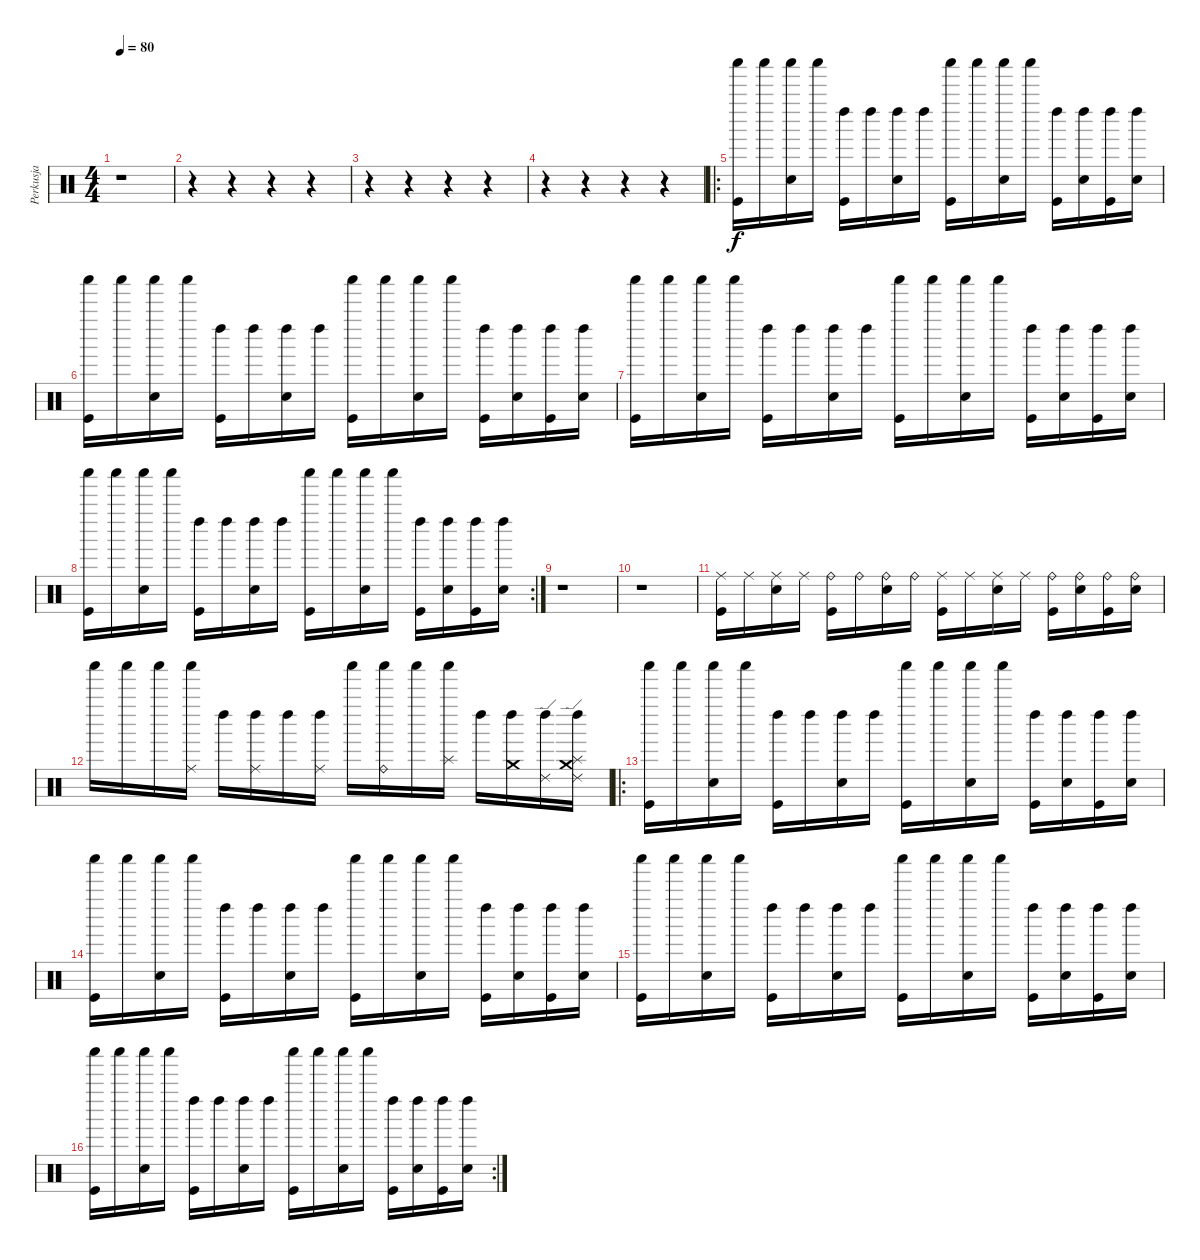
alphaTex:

\track ("Perkusja" "Perkusja") {instrument percussion}
\staff {score}
\articulation defaults
\ts (4 4)
\tempo 80
\clef neutral
\ks c
r.1{dy f} |
r.4 r.4 r.4 r.4 |
r.4 r.4 r.4 r.4 |
r.4 r.4 r.4 r.4 |
\ro
("Shaker (hit)" "Kick (hit)").16 "Shaker (hit)".16 ("Shaker (hit)" "Snare (hit) 2").16 "Shaker (hit)".16 ("Left Maraca (hit)" "Kick (hit)").16 "Left Maraca (hit)".16 ("Left Maraca (hit)" "Snare (hit) 2").16 "Left Maraca (hit)".16 ("Shaker (hit)" "Kick (hit)").16 "Shaker (hit)".16 ("Shaker (hit)" "Snare (hit) 2").16 "Shaker (hit)".16 ("Left Maraca (hit)" "Kick (hit)").16 ("Left Maraca (hit)" "Snare (hit) 2").16 ("Left Maraca (hit)" "Kick (hit)").16 ("Left Maraca (hit)" "Snare (hit) 2").16 |
("Shaker (hit)" "Kick (hit)").16 "Shaker (hit)".16 ("Shaker (hit)" "Snare (hit) 2").16 "Shaker (hit)".16 ("Left Maraca (hit)" "Kick (hit)").16 "Left Maraca (hit)".16 ("Left Maraca (hit)" "Snare (hit) 2").16 "Left Maraca (hit)".16 ("Shaker (hit)" "Kick (hit)").16 "Shaker (hit)".16 ("Shaker (hit)" "Snare (hit) 2").16 "Shaker (hit)".16 ("Left Maraca (hit)" "Kick (hit)").16 ("Left Maraca (hit)" "Snare (hit) 2").16 ("Left Maraca (hit)" "Kick (hit)").16 ("Left Maraca (hit)" "Snare (hit) 2").16 |
("Shaker (hit)" "Kick (hit)").16 "Shaker (hit)".16 ("Shaker (hit)" "Snare (hit) 2").16 "Shaker (hit)".16 ("Left Maraca (hit)" "Kick (hit)").16 "Left Maraca (hit)".16 ("Left Maraca (hit)" "Snare (hit) 2").16 "Left Maraca (hit)".16 ("Shaker (hit)" "Kick (hit)").16 "Shaker (hit)".16 ("Shaker (hit)" "Snare (hit) 2").16 "Shaker (hit)".16 ("Left Maraca (hit)" "Kick (hit)").16 ("Left Maraca (hit)" "Snare (hit) 2").16 ("Left Maraca (hit)" "Kick (hit)").16 ("Left Maraca (hit)" "Snare (hit) 2").16 |
\rc 2
("Shaker (hit)" "Kick (hit)").16 "Shaker (hit)".16 ("Shaker (hit)" "Snare (hit) 2").16 "Shaker (hit)".16 ("Left Maraca (hit)" "Kick (hit)").16 "Left Maraca (hit)".16 ("Left Maraca (hit)" "Snare (hit) 2").16 "Left Maraca (hit)".16 ("Shaker (hit)" "Kick (hit)").16 "Shaker (hit)".16 ("Shaker (hit)" "Snare (hit) 2").16 "Shaker (hit)".16 ("Left Maraca (hit)" "Kick (hit)").16 ("Left Maraca (hit)" "Snare (hit) 2").16 ("Left Maraca (hit)" "Kick (hit)").16 ("Left Maraca (hit)" "Snare (hit) 2").16 |
r.1 |
r.1 |
("Ride (middle)" "Kick (hit)").16 "Ride (middle)".16 ("Ride (middle)" "Snare (hit) 2").16 "Ride (middle)".16 ("Ride (bell)" "Kick (hit)").16 "Ride (bell)".16 ("Ride (bell)" "Snare (hit) 2").16 "Ride (bell)".16 ("Ride (middle)" "Kick (hit)").16 "Ride (middle)".16 ("Ride (middle)" "Snare (hit) 2").16 "Ride (middle)".16 ("Ride (bell)" "Kick (hit)").16 ("Ride (bell)" "Snare (hit) 2").16 ("Ride (bell)" "Kick (hit)").16 ("Ride (bell)" "Snare (hit) 2").16 |
"Shaker (hit)".16 "Shaker (hit)".16 "Shaker (hit)".16 ("Shaker (hit)" "Ride (middle)").16 "Left Maraca (hit)".16 ("Left Maraca (hit)" "Ride (middle)").16 "Left Maraca (hit)".16 ("Left Maraca (hit)" "Ride (middle)").16 "Shaker (hit)".16 ("Shaker (hit)" "Ride (bell)").16 "Shaker (hit)".16 ("Shaker (hit)" "Splash (hit)").16 "Left Maraca (hit)".16 ("Left Maraca (hit)" "Crash medium (hit)").16 ("Left Maraca (hit)" "Ride (edge) 2").16 ("Left Maraca (hit)" "Ride (edge) 2" "Crash medium (hit)" "Splash (hit)").16 |
\ro
("Shaker (hit)" "Kick (hit)").16 "Shaker (hit)".16 ("Shaker (hit)" "Snare (hit) 2").16 "Shaker (hit)".16 ("Left Maraca (hit)" "Kick (hit)").16 "Left Maraca (hit)".16 ("Left Maraca (hit)" "Snare (hit) 2").16 "Left Maraca (hit)".16 ("Shaker (hit)" "Kick (hit)").16 "Shaker (hit)".16 ("Shaker (hit)" "Snare (hit) 2").16 "Shaker (hit)".16 ("Left Maraca (hit)" "Kick (hit)").16 ("Left Maraca (hit)" "Snare (hit) 2").16 ("Left Maraca (hit)" "Kick (hit)").16 ("Left Maraca (hit)" "Snare (hit) 2").16 |
("Shaker (hit)" "Kick (hit)").16 "Shaker (hit)".16 ("Shaker (hit)" "Snare (hit) 2").16 "Shaker (hit)".16 ("Left Maraca (hit)" "Kick (hit)").16 "Left Maraca (hit)".16 ("Left Maraca (hit)" "Snare (hit) 2").16 "Left Maraca (hit)".16 ("Shaker (hit)" "Kick (hit)").16 "Shaker (hit)".16 ("Shaker (hit)" "Snare (hit) 2").16 "Shaker (hit)".16 ("Left Maraca (hit)" "Kick (hit)").16 ("Left Maraca (hit)" "Snare (hit) 2").16 ("Left Maraca (hit)" "Kick (hit)").16 ("Left Maraca (hit)" "Snare (hit) 2").16 |
("Shaker (hit)" "Kick (hit)").16 "Shaker (hit)".16 ("Shaker (hit)" "Snare (hit) 2").16 "Shaker (hit)".16 ("Left Maraca (hit)" "Kick (hit)").16 "Left Maraca (hit)".16 ("Left Maraca (hit)" "Snare (hit) 2").16 "Left Maraca (hit)".16 ("Shaker (hit)" "Kick (hit)").16 "Shaker (hit)".16 ("Shaker (hit)" "Snare (hit) 2").16 "Shaker (hit)".16 ("Left Maraca (hit)" "Kick (hit)").16 ("Left Maraca (hit)" "Snare (hit) 2").16 ("Left Maraca (hit)" "Kick (hit)").16 ("Left Maraca (hit)" "Snare (hit) 2").16 |
\rc 2
("Shaker (hit)" "Kick (hit)").16 "Shaker (hit)".16 ("Shaker (hit)" "Snare (hit) 2").16 "Shaker (hit)".16 ("Left Maraca (hit)" "Kick (hit)").16 "Left Maraca (hit)".16 ("Left Maraca (hit)" "Snare (hit) 2").16 "Left Maraca (hit)".16 ("Shaker (hit)" "Kick (hit)").16 "Shaker (hit)".16 ("Shaker (hit)" "Snare (hit) 2").16 "Shaker (hit)".16 ("Left Maraca (hit)" "Kick (hit)").16 ("Left Maraca (hit)" "Snare (hit) 2").16 ("Left Maraca (hit)" "Kick (hit)").16 ("Left Maraca (hit)" "Snare (hit) 2").16
